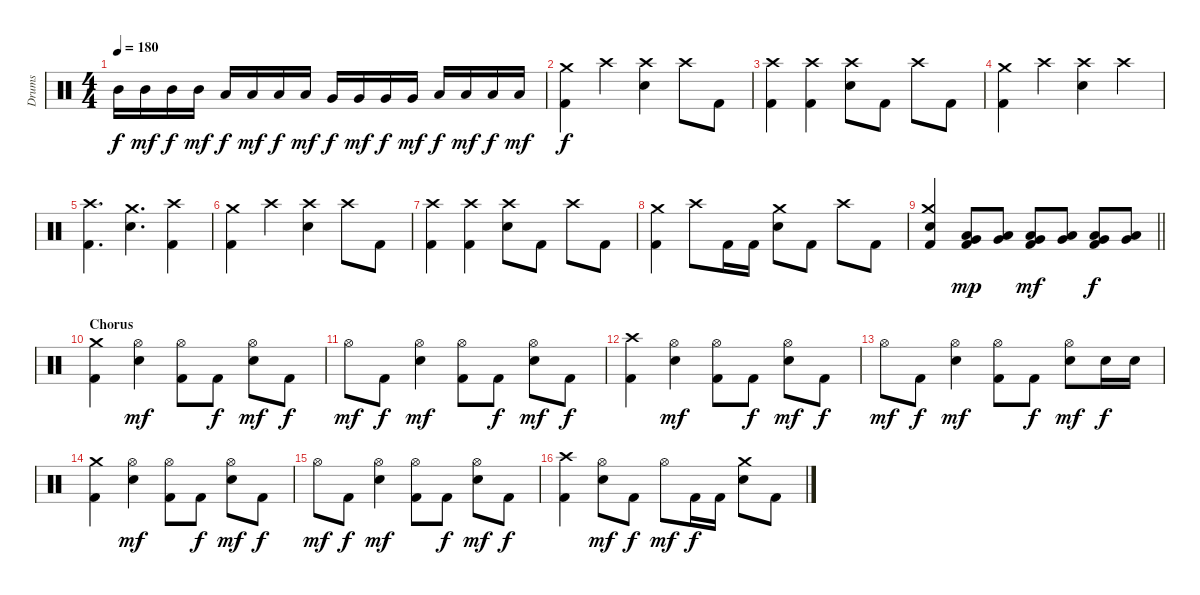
\track ("Drums" "Drums") {instrument percussion}
\staff {score}
\articulation defaults
\ts (4 4)
\tempo 180
\clef neutral
\ks c "Mid Tom (hit)".16{dy f} "Mid Tom (hit)".16{dy mf} "Mid Tom (hit)".16{dy f} "Mid Tom (hit)".16{dy mf} "Low Tom (hit)".16{dy f} "Low Tom (hit)".16{dy mf} "Low Tom (hit)".16{dy f} "Low Tom (hit)".16{dy mf} "Very Low Tom (hit)".16{dy f} "Very Low Tom (hit)".16{dy mf} "Very Low Tom (hit)".16{dy f} "Very Low Tom (hit)".16{dy mf} "Low Floor Tom (hit)".16{dy f} "Low Floor Tom (hit)".16{dy mf} "Low Floor Tom (hit)".16{dy f} "Low Floor Tom (hit)".16{dy mf}
|
("Kick (hit) 2" "Crash medium (hit)").4{dy f} "Crash high (hit)".4 ("Crash high (hit)" "Electric Snare (hit)").4 "Crash high (hit)".8 "Kick (hit) 2".8 |
("Kick (hit) 2" "Crash high (hit)").4 ("Kick (hit) 2" "Crash high (hit)").4 ("Crash high (hit)" "Electric Snare (hit)").8 "Kick (hit) 2".8 "Crash high (hit)".8 "Kick (hit) 2".8 |
("Kick (hit) 2" "Crash medium (hit)").4 "Crash high (hit)".4 ("Crash high (hit)" "Electric Snare (hit)").4 "Crash high (hit)".4 |
("Kick (hit) 2" "Crash high (hit)").4{d} ("Crash medium (hit)" "Electric Snare (hit)").4{d} ("Kick (hit) 2" "Crash high (hit)").4 |
("Kick (hit) 2" "Crash medium (hit)").4 "Crash high (hit)".4 ("Crash high (hit)" "Electric Snare (hit)").4 "Crash high (hit)".8 "Kick (hit) 2".8 |
("Kick (hit) 2" "Crash high (hit)").4 ("Kick (hit) 2" "Crash high (hit)").4 ("Crash high (hit)" "Electric Snare (hit)").8 "Kick (hit) 2".8 "Crash high (hit)".8 "Kick (hit) 2".8 |
("Kick (hit) 2" "Crash medium (hit)").4 "Crash high (hit)".8 "Kick (hit) 2".16 "Kick (hit) 2".16 ("Crash medium (hit)" "Electric Snare (hit)").8 "Kick (hit) 2".8 "Crash high (hit)".8 "Kick (hit) 2".8 |
\barLineRight lightlight
("Kick (hit) 2" "Crash medium (hit)" "Electric Snare (hit)").4 ("Kick (hit) 2" "Very Low Tom (hit)" "Low Tom (hit)").8{dy mp} ("Very Low Tom (hit)" "Low Tom (hit)").8 ("Kick (hit) 2" "Very Low Tom (hit)" "Low Tom (hit)").8{dy mf} ("Very Low Tom (hit)" "Low Tom (hit)").8 ("Kick (hit) 2" "Very Low Tom (hit)" "Low Tom (hit)").8{dy f} ("Very Low Tom (hit)" "Low Tom (hit)").8 |
\section ("" "Chorus")
("Kick (hit) 2" "Crash medium (hit)").4 ("Hi-Hat (open)" "Electric Snare (hit)").4{dy mf} ("Kick (hit) 2" "Hi-Hat (open)").8 "Kick (hit) 2".8{dy f} ("Hi-Hat (open)" "Electric Snare (hit)").8{dy mf} "Kick (hit) 2".8{dy f} |
"Hi-Hat (open)".8{dy mf} "Kick (hit) 2".8{dy f} ("Hi-Hat (open)" "Electric Snare (hit)").4{dy mf} ("Kick (hit) 2" "Hi-Hat (open)").8 "Kick (hit) 2".8{dy f} ("Hi-Hat (open)" "Electric Snare (hit)").8{dy mf} "Kick (hit) 2".8{dy f} |
("Kick (hit) 2" "Crash high (hit)").4 ("Hi-Hat (open)" "Electric Snare (hit)").4{dy mf} ("Kick (hit) 2" "Hi-Hat (open)").8 "Kick (hit) 2".8{dy f} ("Hi-Hat (open)" "Electric Snare (hit)").8{dy mf} "Kick (hit) 2".8{dy f} |
"Hi-Hat (open)".8{dy mf} "Kick (hit) 2".8{dy f} ("Hi-Hat (open)" "Electric Snare (hit)").4{dy mf} ("Kick (hit) 2" "Hi-Hat (open)").8 "Kick (hit) 2".8{dy f} ("Hi-Hat (open)" "Electric Snare (hit)").8{dy mf} "Electric Snare (hit)".16{dy f} "Electric Snare (hit)".16 |
("Kick (hit) 2" "Crash medium (hit)").4 ("Hi-Hat (open)" "Electric Snare (hit)").4{dy mf} ("Kick (hit) 2" "Hi-Hat (open)").8 "Kick (hit) 2".8{dy f} ("Hi-Hat (open)" "Electric Snare (hit)").8{dy mf} "Kick (hit) 2".8{dy f} |
"Hi-Hat (open)".8{dy mf} "Kick (hit) 2".8{dy f} ("Hi-Hat (open)" "Electric Snare (hit)").4{dy mf} ("Kick (hit) 2" "Hi-Hat (open)").8 "Kick (hit) 2".8{dy f} ("Hi-Hat (open)" "Electric Snare (hit)").8{dy mf} "Kick (hit) 2".8{dy f} |
("Kick (hit) 2" "Crash high (hit)").4 ("Hi-Hat (open)" "Electric Snare (hit)").8{dy mf} "Kick (hit) 2".8{dy f} "Hi-Hat (open)".8{dy mf} "Kick (hit) 2".16{dy f} "Kick (hit) 2".16 ("Crash medium (hit)" "Electric Snare (hit)").8 "Kick (hit) 2".8
